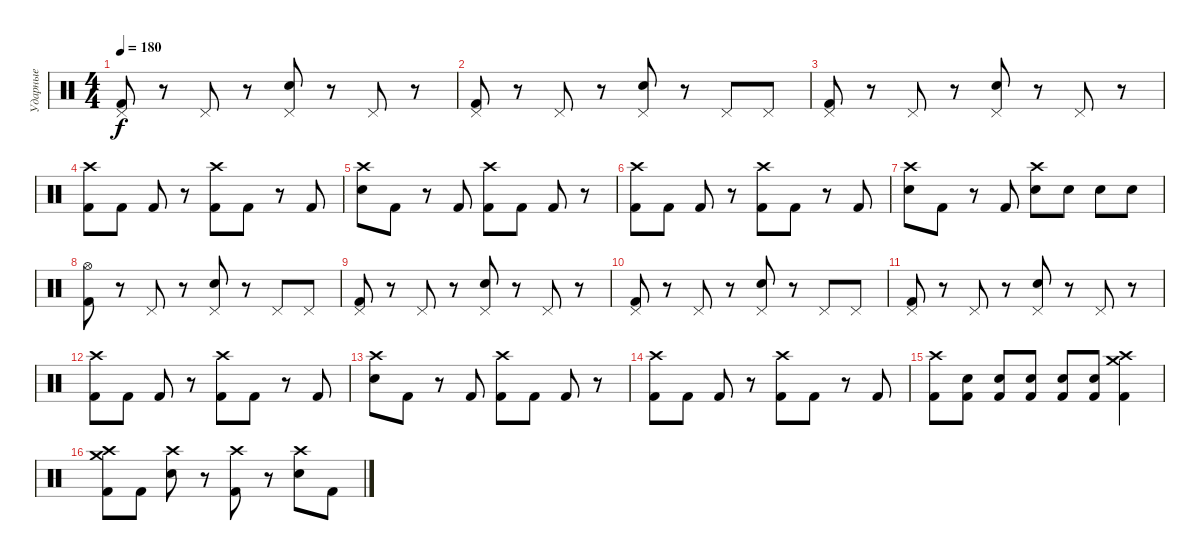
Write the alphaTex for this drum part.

\track ("Ударные" "Ударные") {instrument percussion}
\staff {score}
\articulation defaults
\ts (4 4)
\tempo 180
\clef neutral
\ks c
("Pedal Hi-Hat (hit)" "Kick (hit) 2").8{dy f} r.8 "Pedal Hi-Hat (hit)".8 r.8 ("Pedal Hi-Hat (hit)" "Snare (hit) 2").8 r.8 "Pedal Hi-Hat (hit)".8 r.8 |
("Pedal Hi-Hat (hit)" "Kick (hit) 2").8 r.8 "Pedal Hi-Hat (hit)".8 r.8 ("Pedal Hi-Hat (hit)" "Snare (hit) 2").8 r.8 "Pedal Hi-Hat (hit)".8 "Pedal Hi-Hat (hit)".8 |
("Pedal Hi-Hat (hit)" "Kick (hit) 2").8 r.8 "Pedal Hi-Hat (hit)".8 r.8 ("Pedal Hi-Hat (hit)" "Snare (hit) 2").8 r.8 "Pedal Hi-Hat (hit)".8 r.8 |
("Crash high (hit)" "Kick (hit) 2").8 "Kick (hit) 2".8 "Kick (hit) 2".8 r.8 ("Crash high (hit)" "Kick (hit) 2").8 "Kick (hit) 2".8 r.8 "Kick (hit) 2".8 |
("Crash high (hit)" "Snare (hit) 2").8 "Kick (hit) 2".8 r.8 "Kick (hit) 2".8 ("Crash high (hit)" "Kick (hit) 2").8 "Kick (hit) 2".8 "Kick (hit) 2".8 r.8 |
("Crash high (hit)" "Kick (hit) 2").8 "Kick (hit) 2".8 "Kick (hit) 2".8 r.8 ("Crash high (hit)" "Kick (hit) 2").8 "Kick (hit) 2".8 r.8 "Kick (hit) 2".8 |
("Crash high (hit)" "Snare (hit) 2").8 "Kick (hit) 2".8 r.8 "Kick (hit) 2".8 ("Crash high (hit)" "Snare (hit) 2").8 "Snare (hit) 2".8 "Snare (hit) 2".8 "Snare (hit) 2".8 |
("Hi-Hat (open)" "Kick (hit) 2").8 r.8 "Pedal Hi-Hat (hit)".8 r.8 ("Pedal Hi-Hat (hit)" "Snare (hit) 2").8 r.8 "Pedal Hi-Hat (hit)".8 "Pedal Hi-Hat (hit)".8 |
("Pedal Hi-Hat (hit)" "Kick (hit) 2").8 r.8 "Pedal Hi-Hat (hit)".8 r.8 ("Pedal Hi-Hat (hit)" "Snare (hit) 2").8 r.8 "Pedal Hi-Hat (hit)".8 r.8 |
("Pedal Hi-Hat (hit)" "Kick (hit) 2").8 r.8 "Pedal Hi-Hat (hit)".8 r.8 ("Pedal Hi-Hat (hit)" "Snare (hit) 2").8 r.8 "Pedal Hi-Hat (hit)".8 "Pedal Hi-Hat (hit)".8 |
("Pedal Hi-Hat (hit)" "Kick (hit) 2").8 r.8 "Pedal Hi-Hat (hit)".8 r.8 ("Pedal Hi-Hat (hit)" "Snare (hit) 2").8 r.8 "Pedal Hi-Hat (hit)".8 r.8 |
("Crash high (hit)" "Kick (hit) 2").8 "Kick (hit) 2".8 "Kick (hit) 2".8 r.8 ("Crash high (hit)" "Kick (hit) 2").8 "Kick (hit) 2".8 r.8 "Kick (hit) 2".8 |
("Crash high (hit)" "Snare (hit) 2").8 "Kick (hit) 2".8 r.8 "Kick (hit) 2".8 ("Crash high (hit)" "Kick (hit) 2").8 "Kick (hit) 2".8 "Kick (hit) 2".8 r.8 |
("Crash high (hit)" "Kick (hit) 2").8 "Kick (hit) 2".8 "Kick (hit) 2".8 r.8 ("Crash high (hit)" "Kick (hit) 2").8 "Kick (hit) 2".8 r.8 "Kick (hit) 2".8 |
("Crash high (hit)" "Kick (hit) 2").8 ("Snare (hit) 2" "Kick (hit) 2").8 ("Snare (hit) 2" "Kick (hit) 2").8 ("Snare (hit) 2" "Kick (hit) 2").8 ("Snare (hit) 2" "Kick (hit) 2").8 ("Snare (hit) 2" "Kick (hit) 2").8 ("Crash medium (hit)" "Crash high (hit)" "Kick (hit) 2").4 |
("Crash medium (hit)" "Crash high (hit)" "Kick (hit) 2").8 "Kick (hit) 2".8 ("Crash high (hit)" "Snare (hit) 2").8 r.8 ("Crash high (hit)" "Kick (hit) 2").8 r.8 ("Crash high (hit)" "Snare (hit) 2").8 "Kick (hit) 2".8
